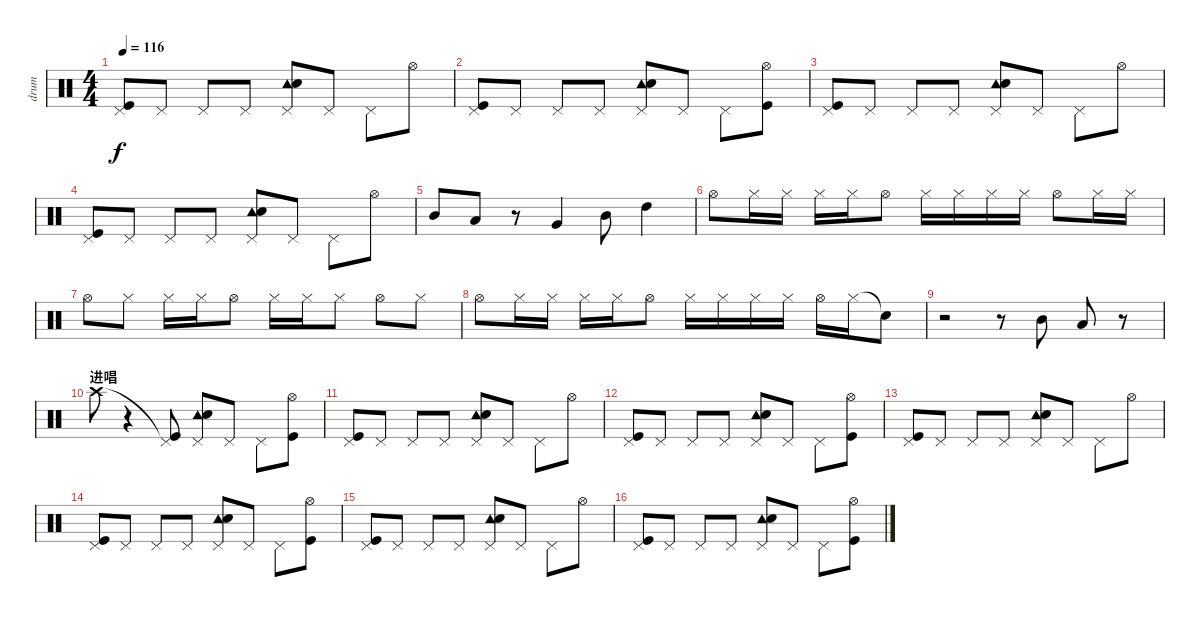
\track ("drum" "drum") {instrument percussion}
\staff {score}
\articulation defaults
\ts (4 4)
\tempo 116
\clef neutral
\ks c
("Pedal Hi-Hat (hit)" "Kick (hit)").8{dy f} "Pedal Hi-Hat (hit)".8 "Pedal Hi-Hat (hit)".8 "Pedal Hi-Hat (hit)".8 ("Pedal Hi-Hat (hit)" "Tambourine (hit)" "Snare (hit) 2").8 "Pedal Hi-Hat (hit)".8 "Pedal Hi-Hat (hit)".8 "Hi-Hat (open)".8 |
("Pedal Hi-Hat (hit)" "Kick (hit)").8 "Pedal Hi-Hat (hit)".8 "Pedal Hi-Hat (hit)".8 "Pedal Hi-Hat (hit)".8 ("Pedal Hi-Hat (hit)" "Tambourine (hit)" "Snare (hit) 2").8 "Pedal Hi-Hat (hit)".8 "Pedal Hi-Hat (hit)".8 ("Hi-Hat (open)" "Kick (hit)").8 |
("Pedal Hi-Hat (hit)" "Kick (hit)").8 "Pedal Hi-Hat (hit)".8 "Pedal Hi-Hat (hit)".8 "Pedal Hi-Hat (hit)".8 ("Pedal Hi-Hat (hit)" "Tambourine (hit)" "Snare (hit) 2").8 "Pedal Hi-Hat (hit)".8 "Pedal Hi-Hat (hit)".8 "Hi-Hat (open)".8 |
("Pedal Hi-Hat (hit)" "Kick (hit)").8 "Pedal Hi-Hat (hit)".8 "Pedal Hi-Hat (hit)".8 "Pedal Hi-Hat (hit)".8 ("Pedal Hi-Hat (hit)" "Tambourine (hit)" "Snare (hit) 2").8 "Pedal Hi-Hat (hit)".8 "Pedal Hi-Hat (hit)".8 "Hi-Hat (open)".8 |
"Mid Tom (hit)".8 "Low Tom (hit)".8 r.8 "Very Low Tom (hit)".4 "Mid Tom (hit)".8 "High Tom (hit)".4 |
"Hi-Hat (open)".8 "Hi-Hat (closed)".16 "Hi-Hat (closed)".16 "Hi-Hat (closed)".16 "Hi-Hat (closed)".16 "Hi-Hat (open)".8 "Hi-Hat (closed)".16 "Hi-Hat (closed)".16 "Hi-Hat (closed)".16 "Hi-Hat (closed)".16 "Hi-Hat (open)".8 "Hi-Hat (closed)".16 "Hi-Hat (closed)".16 |
"Hi-Hat (open)".8 "Hi-Hat (closed)".8 "Hi-Hat (closed)".16 "Hi-Hat (closed)".16 "Hi-Hat (open)".8 "Hi-Hat (closed)".16 "Hi-Hat (closed)".16 "Hi-Hat (closed)".8 "Hi-Hat (open)".8 "Hi-Hat (closed)".8 |
"Hi-Hat (open)".8 "Hi-Hat (closed)".16 "Hi-Hat (closed)".16 "Hi-Hat (closed)".16 "Hi-Hat (closed)".16 "Hi-Hat (open)".8 "Hi-Hat (closed)".16 "Hi-Hat (closed)".16 "Hi-Hat (closed)".16 "Hi-Hat (closed)".16 "Hi-Hat (open)".16 "Hi-Hat (closed)".16 "Snare (hit)"{t}.8 |
r.2 r.8 "Mid Tom (hit)".8 "Low Tom (hit)".8 r.8 |
\section ("" "进唱")
"Crash high (hit)".8 r.4 ("Pedal Hi-Hat (hit)"{t} "Kick (hit)").8 ("Pedal Hi-Hat (hit)" "Tambourine (hit)" "Snare (hit) 2").8 "Pedal Hi-Hat (hit)".8 "Pedal Hi-Hat (hit)".8 ("Hi-Hat (open)" "Kick (hit)").8 |
("Pedal Hi-Hat (hit)" "Kick (hit)").8 "Pedal Hi-Hat (hit)".8 "Pedal Hi-Hat (hit)".8 "Pedal Hi-Hat (hit)".8 ("Pedal Hi-Hat (hit)" "Tambourine (hit)" "Snare (hit) 2").8 "Pedal Hi-Hat (hit)".8 "Pedal Hi-Hat (hit)".8 "Hi-Hat (open)".8 |
("Pedal Hi-Hat (hit)" "Kick (hit)").8 "Pedal Hi-Hat (hit)".8 "Pedal Hi-Hat (hit)".8 "Pedal Hi-Hat (hit)".8 ("Pedal Hi-Hat (hit)" "Tambourine (hit)" "Snare (hit) 2").8 "Pedal Hi-Hat (hit)".8 "Pedal Hi-Hat (hit)".8 ("Hi-Hat (open)" "Kick (hit)").8 |
("Pedal Hi-Hat (hit)" "Kick (hit)").8 "Pedal Hi-Hat (hit)".8 "Pedal Hi-Hat (hit)".8 "Pedal Hi-Hat (hit)".8 ("Pedal Hi-Hat (hit)" "Tambourine (hit)" "Snare (hit) 2").8 "Pedal Hi-Hat (hit)".8 "Pedal Hi-Hat (hit)".8 "Hi-Hat (open)".8 |
("Pedal Hi-Hat (hit)" "Kick (hit)").8 "Pedal Hi-Hat (hit)".8 "Pedal Hi-Hat (hit)".8 "Pedal Hi-Hat (hit)".8 ("Pedal Hi-Hat (hit)" "Tambourine (hit)" "Snare (hit) 2").8 "Pedal Hi-Hat (hit)".8 "Pedal Hi-Hat (hit)".8 ("Hi-Hat (open)" "Kick (hit)").8 |
("Pedal Hi-Hat (hit)" "Kick (hit)").8 "Pedal Hi-Hat (hit)".8 "Pedal Hi-Hat (hit)".8 "Pedal Hi-Hat (hit)".8 ("Pedal Hi-Hat (hit)" "Tambourine (hit)" "Snare (hit) 2").8 "Pedal Hi-Hat (hit)".8 "Pedal Hi-Hat (hit)".8 "Hi-Hat (open)".8 |
("Pedal Hi-Hat (hit)" "Kick (hit)").8 "Pedal Hi-Hat (hit)".8 "Pedal Hi-Hat (hit)".8 "Pedal Hi-Hat (hit)".8 ("Pedal Hi-Hat (hit)" "Tambourine (hit)" "Snare (hit) 2").8 "Pedal Hi-Hat (hit)".8 "Pedal Hi-Hat (hit)".8 ("Hi-Hat (open)" "Kick (hit)").8
